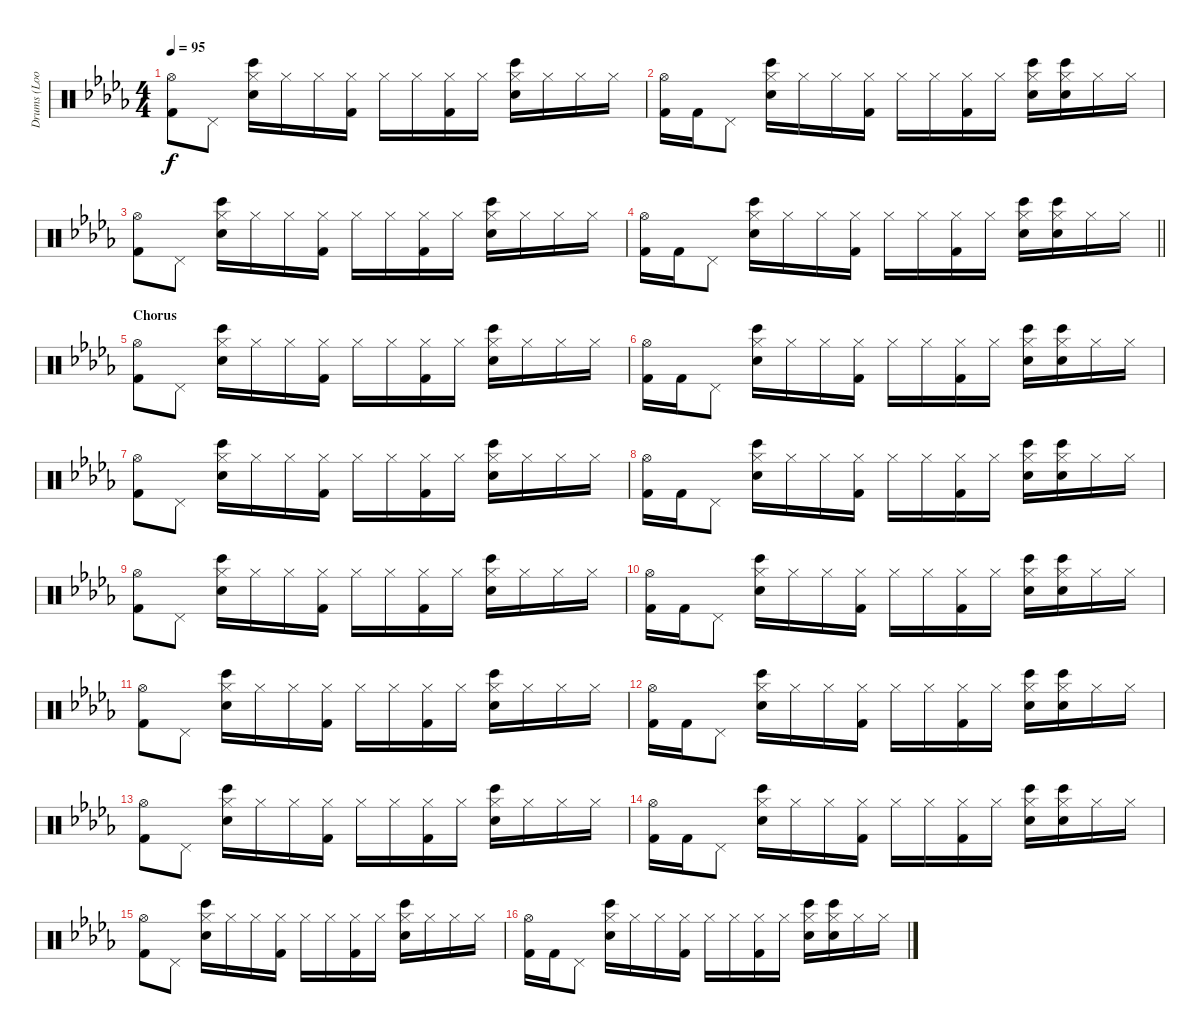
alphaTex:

\track ("Drums (Loops)" "Drums (Loo") {instrument percussion}
\staff {score}
\articulation defaults
\ts (4 4)
\tempo 95
\clef neutral
\ks db
("Hi-Hat (open)" "Kick (hit) 2").8{dy f} "Pedal Hi-Hat (hit)".8 ("Hi-Hat (closed)" "Snare (hit) 2" "Bongo High (hit)").16 "Hi-Hat (closed)".16 "Hi-Hat (closed)".16 ("Hi-Hat (closed)" "Kick (hit) 2").16 "Hi-Hat (closed)".16 "Hi-Hat (closed)".16 ("Hi-Hat (closed)" "Kick (hit) 2").16 "Hi-Hat (closed)".16 ("Hi-Hat (closed)" "Snare (hit) 2" "Bongo High (hit)").16 "Hi-Hat (closed)".16 "Hi-Hat (closed)".16 "Hi-Hat (closed)".16 |
("Hi-Hat (open)" "Kick (hit) 2").16 "Kick (hit) 2".16 "Pedal Hi-Hat (hit)".8 ("Hi-Hat (closed)" "Snare (hit) 2" "Bongo High (hit)").16 "Hi-Hat (closed)".16 "Hi-Hat (closed)".16 ("Hi-Hat (closed)" "Kick (hit) 2").16 "Hi-Hat (closed)".16 "Hi-Hat (closed)".16 ("Hi-Hat (closed)" "Kick (hit) 2").16 "Hi-Hat (closed)".16 ("Hi-Hat (closed)" "Snare (hit) 2" "Bongo High (hit)").16 ("Hi-Hat (closed)" "Snare (hit) 2" "Bongo High (hit)").16 "Hi-Hat (closed)".16 "Hi-Hat (closed)".16 |
("Hi-Hat (open)" "Kick (hit) 2").8 "Pedal Hi-Hat (hit)".8 ("Hi-Hat (closed)" "Snare (hit) 2" "Bongo High (hit)").16 "Hi-Hat (closed)".16 "Hi-Hat (closed)".16 ("Hi-Hat (closed)" "Kick (hit) 2").16 "Hi-Hat (closed)".16 "Hi-Hat (closed)".16 ("Hi-Hat (closed)" "Kick (hit) 2").16 "Hi-Hat (closed)".16 ("Hi-Hat (closed)" "Snare (hit) 2" "Bongo High (hit)").16 "Hi-Hat (closed)".16 "Hi-Hat (closed)".16 "Hi-Hat (closed)".16 |
\barLineRight lightlight
("Hi-Hat (open)" "Kick (hit) 2").16 "Kick (hit) 2".16 "Pedal Hi-Hat (hit)".8 ("Hi-Hat (closed)" "Snare (hit) 2" "Bongo High (hit)").16 "Hi-Hat (closed)".16 "Hi-Hat (closed)".16 ("Hi-Hat (closed)" "Kick (hit) 2").16 "Hi-Hat (closed)".16 "Hi-Hat (closed)".16 ("Hi-Hat (closed)" "Kick (hit) 2").16 "Hi-Hat (closed)".16 ("Hi-Hat (closed)" "Snare (hit) 2" "Bongo High (hit)").16 ("Hi-Hat (closed)" "Snare (hit) 2" "Bongo High (hit)").16 "Hi-Hat (closed)".16 "Hi-Hat (closed)".16 |
\section ("" "Chorus")
("Hi-Hat (open)" "Kick (hit) 2").8 "Pedal Hi-Hat (hit)".8 ("Hi-Hat (closed)" "Snare (hit) 2" "Bongo High (hit)").16 "Hi-Hat (closed)".16 "Hi-Hat (closed)".16 ("Hi-Hat (closed)" "Kick (hit) 2").16 "Hi-Hat (closed)".16 "Hi-Hat (closed)".16 ("Hi-Hat (closed)" "Kick (hit) 2").16 "Hi-Hat (closed)".16 ("Hi-Hat (closed)" "Snare (hit) 2" "Bongo High (hit)").16 "Hi-Hat (closed)".16 "Hi-Hat (closed)".16 "Hi-Hat (closed)".16 |
("Hi-Hat (open)" "Kick (hit) 2").16 "Kick (hit) 2".16 "Pedal Hi-Hat (hit)".8 ("Hi-Hat (closed)" "Snare (hit) 2" "Bongo High (hit)").16 "Hi-Hat (closed)".16 "Hi-Hat (closed)".16 ("Hi-Hat (closed)" "Kick (hit) 2").16 "Hi-Hat (closed)".16 "Hi-Hat (closed)".16 ("Hi-Hat (closed)" "Kick (hit) 2").16 "Hi-Hat (closed)".16 ("Hi-Hat (closed)" "Snare (hit) 2" "Bongo High (hit)").16 ("Hi-Hat (closed)" "Snare (hit) 2" "Bongo High (hit)").16 "Hi-Hat (closed)".16 "Hi-Hat (closed)".16 |
("Hi-Hat (open)" "Kick (hit) 2").8 "Pedal Hi-Hat (hit)".8 ("Hi-Hat (closed)" "Snare (hit) 2" "Bongo High (hit)").16 "Hi-Hat (closed)".16 "Hi-Hat (closed)".16 ("Hi-Hat (closed)" "Kick (hit) 2").16 "Hi-Hat (closed)".16 "Hi-Hat (closed)".16 ("Hi-Hat (closed)" "Kick (hit) 2").16 "Hi-Hat (closed)".16 ("Hi-Hat (closed)" "Snare (hit) 2" "Bongo High (hit)").16 "Hi-Hat (closed)".16 "Hi-Hat (closed)".16 "Hi-Hat (closed)".16 |
("Hi-Hat (open)" "Kick (hit) 2").16 "Kick (hit) 2".16 "Pedal Hi-Hat (hit)".8 ("Hi-Hat (closed)" "Snare (hit) 2" "Bongo High (hit)").16 "Hi-Hat (closed)".16 "Hi-Hat (closed)".16 ("Hi-Hat (closed)" "Kick (hit) 2").16 "Hi-Hat (closed)".16 "Hi-Hat (closed)".16 ("Hi-Hat (closed)" "Kick (hit) 2").16 "Hi-Hat (closed)".16 ("Hi-Hat (closed)" "Snare (hit) 2" "Bongo High (hit)").16 ("Hi-Hat (closed)" "Snare (hit) 2" "Bongo High (hit)").16 "Hi-Hat (closed)".16 "Hi-Hat (closed)".16 |
("Hi-Hat (open)" "Kick (hit) 2").8 "Pedal Hi-Hat (hit)".8 ("Hi-Hat (closed)" "Snare (hit) 2" "Bongo High (hit)").16 "Hi-Hat (closed)".16 "Hi-Hat (closed)".16 ("Hi-Hat (closed)" "Kick (hit) 2").16 "Hi-Hat (closed)".16 "Hi-Hat (closed)".16 ("Hi-Hat (closed)" "Kick (hit) 2").16 "Hi-Hat (closed)".16 ("Hi-Hat (closed)" "Snare (hit) 2" "Bongo High (hit)").16 "Hi-Hat (closed)".16 "Hi-Hat (closed)".16 "Hi-Hat (closed)".16 |
("Hi-Hat (open)" "Kick (hit) 2").16 "Kick (hit) 2".16 "Pedal Hi-Hat (hit)".8 ("Hi-Hat (closed)" "Snare (hit) 2" "Bongo High (hit)").16 "Hi-Hat (closed)".16 "Hi-Hat (closed)".16 ("Hi-Hat (closed)" "Kick (hit) 2").16 "Hi-Hat (closed)".16 "Hi-Hat (closed)".16 ("Hi-Hat (closed)" "Kick (hit) 2").16 "Hi-Hat (closed)".16 ("Hi-Hat (closed)" "Snare (hit) 2" "Bongo High (hit)").16 ("Hi-Hat (closed)" "Snare (hit) 2" "Bongo High (hit)").16 "Hi-Hat (closed)".16 "Hi-Hat (closed)".16 |
("Hi-Hat (open)" "Kick (hit) 2").8 "Pedal Hi-Hat (hit)".8 ("Hi-Hat (closed)" "Snare (hit) 2" "Bongo High (hit)").16 "Hi-Hat (closed)".16 "Hi-Hat (closed)".16 ("Hi-Hat (closed)" "Kick (hit) 2").16 "Hi-Hat (closed)".16 "Hi-Hat (closed)".16 ("Hi-Hat (closed)" "Kick (hit) 2").16 "Hi-Hat (closed)".16 ("Hi-Hat (closed)" "Snare (hit) 2" "Bongo High (hit)").16 "Hi-Hat (closed)".16 "Hi-Hat (closed)".16 "Hi-Hat (closed)".16 |
("Hi-Hat (open)" "Kick (hit) 2").16 "Kick (hit) 2".16 "Pedal Hi-Hat (hit)".8 ("Hi-Hat (closed)" "Snare (hit) 2" "Bongo High (hit)").16 "Hi-Hat (closed)".16 "Hi-Hat (closed)".16 ("Hi-Hat (closed)" "Kick (hit) 2").16 "Hi-Hat (closed)".16 "Hi-Hat (closed)".16 ("Hi-Hat (closed)" "Kick (hit) 2").16 "Hi-Hat (closed)".16 ("Hi-Hat (closed)" "Snare (hit) 2" "Bongo High (hit)").16 ("Hi-Hat (closed)" "Snare (hit) 2" "Bongo High (hit)").16 "Hi-Hat (closed)".16 "Hi-Hat (closed)".16 |
("Hi-Hat (open)" "Kick (hit) 2").8 "Pedal Hi-Hat (hit)".8 ("Hi-Hat (closed)" "Snare (hit) 2" "Bongo High (hit)").16 "Hi-Hat (closed)".16 "Hi-Hat (closed)".16 ("Hi-Hat (closed)" "Kick (hit) 2").16 "Hi-Hat (closed)".16 "Hi-Hat (closed)".16 ("Hi-Hat (closed)" "Kick (hit) 2").16 "Hi-Hat (closed)".16 ("Hi-Hat (closed)" "Snare (hit) 2" "Bongo High (hit)").16 "Hi-Hat (closed)".16 "Hi-Hat (closed)".16 "Hi-Hat (closed)".16 |
("Hi-Hat (open)" "Kick (hit) 2").16 "Kick (hit) 2".16 "Pedal Hi-Hat (hit)".8 ("Hi-Hat (closed)" "Snare (hit) 2" "Bongo High (hit)").16 "Hi-Hat (closed)".16 "Hi-Hat (closed)".16 ("Hi-Hat (closed)" "Kick (hit) 2").16 "Hi-Hat (closed)".16 "Hi-Hat (closed)".16 ("Hi-Hat (closed)" "Kick (hit) 2").16 "Hi-Hat (closed)".16 ("Hi-Hat (closed)" "Snare (hit) 2" "Bongo High (hit)").16 ("Hi-Hat (closed)" "Snare (hit) 2" "Bongo High (hit)").16 "Hi-Hat (closed)".16 "Hi-Hat (closed)".16 |
("Hi-Hat (open)" "Kick (hit) 2").8 "Pedal Hi-Hat (hit)".8 ("Hi-Hat (closed)" "Snare (hit) 2" "Bongo High (hit)").16 "Hi-Hat (closed)".16 "Hi-Hat (closed)".16 ("Hi-Hat (closed)" "Kick (hit) 2").16 "Hi-Hat (closed)".16 "Hi-Hat (closed)".16 ("Hi-Hat (closed)" "Kick (hit) 2").16 "Hi-Hat (closed)".16 ("Hi-Hat (closed)" "Snare (hit) 2" "Bongo High (hit)").16 "Hi-Hat (closed)".16 "Hi-Hat (closed)".16 "Hi-Hat (closed)".16 |
("Hi-Hat (open)" "Kick (hit) 2").16 "Kick (hit) 2".16 "Pedal Hi-Hat (hit)".8 ("Hi-Hat (closed)" "Snare (hit) 2" "Bongo High (hit)").16 "Hi-Hat (closed)".16 "Hi-Hat (closed)".16 ("Hi-Hat (closed)" "Kick (hit) 2").16 "Hi-Hat (closed)".16 "Hi-Hat (closed)".16 ("Hi-Hat (closed)" "Kick (hit) 2").16 "Hi-Hat (closed)".16 ("Hi-Hat (closed)" "Snare (hit) 2" "Bongo High (hit)").16 ("Hi-Hat (closed)" "Snare (hit) 2" "Bongo High (hit)").16 "Hi-Hat (closed)".16 "Hi-Hat (closed)".16
